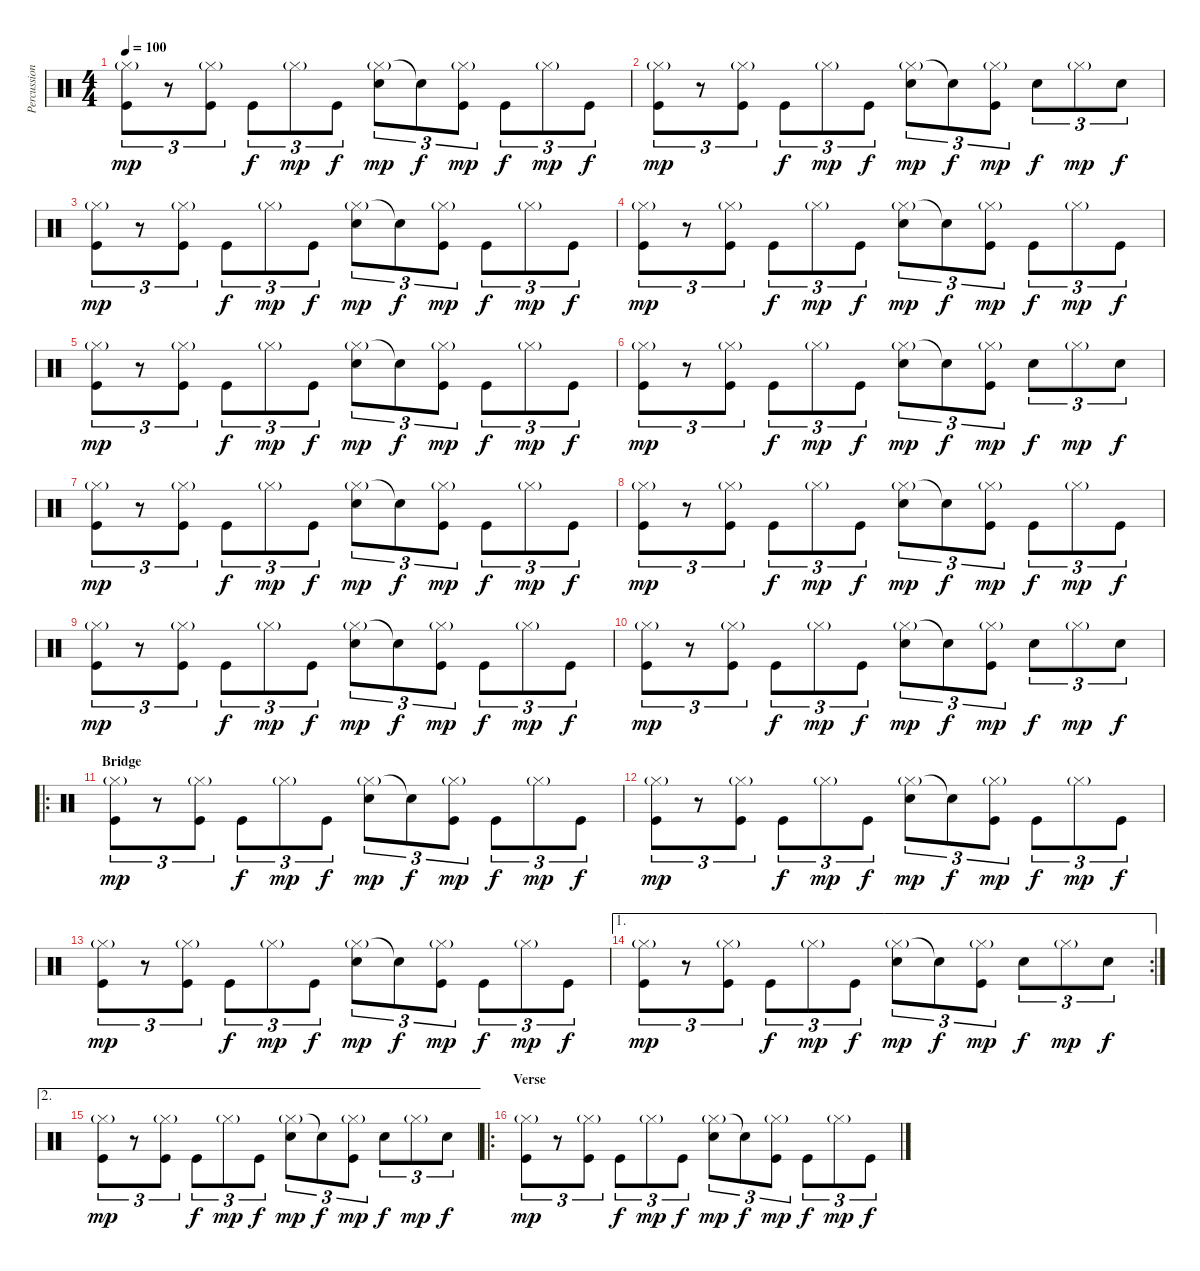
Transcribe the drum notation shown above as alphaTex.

\track ("Percussions" "Percussion") {instrument percussion}
\staff {score}
\articulation defaults
\ts (4 4)
\tempo 100
\clef neutral
\ks c
("Hi-Hat (closed)"{g} "Kick (hit)").8{tu (3 2) dy mp} r.8{tu (3 2)} ("Hi-Hat (closed)"{g} "Kick (hit)").8{tu (3 2)} "Kick (hit)".8{tu (3 2) dy f} "Hi-Hat (closed)"{g}.8{tu (3 2) dy mp} "Kick (hit)".8{tu (3 2) dy f} ("Hi-Hat (closed)"{g} "Electric Snare (hit)").8{tu (3 2) dy mp} "Snare (hit)"{t}.8{tu (3 2) dy f} ("Hi-Hat (closed)"{g} "Kick (hit)").8{tu (3 2) dy mp} "Kick (hit)".8{tu (3 2) dy f} "Hi-Hat (closed)"{g}.8{tu (3 2) dy mp} "Kick (hit)".8{tu (3 2) dy f} |
("Hi-Hat (closed)"{g} "Kick (hit)").8{tu (3 2) dy mp} r.8{tu (3 2)} ("Hi-Hat (closed)"{g} "Kick (hit)").8{tu (3 2)} "Kick (hit)".8{tu (3 2) dy f} "Hi-Hat (closed)"{g}.8{tu (3 2) dy mp} "Kick (hit)".8{tu (3 2) dy f} ("Hi-Hat (closed)"{g} "Electric Snare (hit)").8{tu (3 2) dy mp} "Snare (hit)"{t}.8{tu (3 2) dy f} ("Hi-Hat (closed)"{g} "Kick (hit)").8{tu (3 2) dy mp} "Electric Snare (hit)".8{tu (3 2) dy f} "Hi-Hat (closed)"{g}.8{tu (3 2) dy mp} "Electric Snare (hit)".8{tu (3 2) dy f} |
("Hi-Hat (closed)"{g} "Kick (hit)").8{tu (3 2) dy mp} r.8{tu (3 2)} ("Hi-Hat (closed)"{g} "Kick (hit)").8{tu (3 2)} "Kick (hit)".8{tu (3 2) dy f} "Hi-Hat (closed)"{g}.8{tu (3 2) dy mp} "Kick (hit)".8{tu (3 2) dy f} ("Hi-Hat (closed)"{g} "Electric Snare (hit)").8{tu (3 2) dy mp} "Snare (hit)"{t}.8{tu (3 2) dy f} ("Hi-Hat (closed)"{g} "Kick (hit)").8{tu (3 2) dy mp} "Kick (hit)".8{tu (3 2) dy f} "Hi-Hat (closed)"{g}.8{tu (3 2) dy mp} "Kick (hit)".8{tu (3 2) dy f} |
("Hi-Hat (closed)"{g} "Kick (hit)").8{tu (3 2) dy mp} r.8{tu (3 2)} ("Hi-Hat (closed)"{g} "Kick (hit)").8{tu (3 2)} "Kick (hit)".8{tu (3 2) dy f} "Hi-Hat (closed)"{g}.8{tu (3 2) dy mp} "Kick (hit)".8{tu (3 2) dy f} ("Hi-Hat (closed)"{g} "Electric Snare (hit)").8{tu (3 2) dy mp} "Snare (hit)"{t}.8{tu (3 2) dy f} ("Hi-Hat (closed)"{g} "Kick (hit)").8{tu (3 2) dy mp} "Kick (hit)".8{tu (3 2) dy f} "Hi-Hat (closed)"{g}.8{tu (3 2) dy mp} "Kick (hit)".8{tu (3 2) dy f} |
("Hi-Hat (closed)"{g} "Kick (hit)").8{tu (3 2) dy mp} r.8{tu (3 2)} ("Hi-Hat (closed)"{g} "Kick (hit)").8{tu (3 2)} "Kick (hit)".8{tu (3 2) dy f} "Hi-Hat (closed)"{g}.8{tu (3 2) dy mp} "Kick (hit)".8{tu (3 2) dy f} ("Hi-Hat (closed)"{g} "Electric Snare (hit)").8{tu (3 2) dy mp} "Snare (hit)"{t}.8{tu (3 2) dy f} ("Hi-Hat (closed)"{g} "Kick (hit)").8{tu (3 2) dy mp} "Kick (hit)".8{tu (3 2) dy f} "Hi-Hat (closed)"{g}.8{tu (3 2) dy mp} "Kick (hit)".8{tu (3 2) dy f} |
("Hi-Hat (closed)"{g} "Kick (hit)").8{tu (3 2) dy mp} r.8{tu (3 2)} ("Hi-Hat (closed)"{g} "Kick (hit)").8{tu (3 2)} "Kick (hit)".8{tu (3 2) dy f} "Hi-Hat (closed)"{g}.8{tu (3 2) dy mp} "Kick (hit)".8{tu (3 2) dy f} ("Hi-Hat (closed)"{g} "Electric Snare (hit)").8{tu (3 2) dy mp} "Snare (hit)"{t}.8{tu (3 2) dy f} ("Hi-Hat (closed)"{g} "Kick (hit)").8{tu (3 2) dy mp} "Electric Snare (hit)".8{tu (3 2) dy f} "Hi-Hat (closed)"{g}.8{tu (3 2) dy mp} "Electric Snare (hit)".8{tu (3 2) dy f} |
("Hi-Hat (closed)"{g} "Kick (hit)").8{tu (3 2) dy mp} r.8{tu (3 2)} ("Hi-Hat (closed)"{g} "Kick (hit)").8{tu (3 2)} "Kick (hit)".8{tu (3 2) dy f} "Hi-Hat (closed)"{g}.8{tu (3 2) dy mp} "Kick (hit)".8{tu (3 2) dy f} ("Hi-Hat (closed)"{g} "Electric Snare (hit)").8{tu (3 2) dy mp} "Snare (hit)"{t}.8{tu (3 2) dy f} ("Hi-Hat (closed)"{g} "Kick (hit)").8{tu (3 2) dy mp} "Kick (hit)".8{tu (3 2) dy f} "Hi-Hat (closed)"{g}.8{tu (3 2) dy mp} "Kick (hit)".8{tu (3 2) dy f} |
("Hi-Hat (closed)"{g} "Kick (hit)").8{tu (3 2) dy mp} r.8{tu (3 2)} ("Hi-Hat (closed)"{g} "Kick (hit)").8{tu (3 2)} "Kick (hit)".8{tu (3 2) dy f} "Hi-Hat (closed)"{g}.8{tu (3 2) dy mp} "Kick (hit)".8{tu (3 2) dy f} ("Hi-Hat (closed)"{g} "Electric Snare (hit)").8{tu (3 2) dy mp} "Snare (hit)"{t}.8{tu (3 2) dy f} ("Hi-Hat (closed)"{g} "Kick (hit)").8{tu (3 2) dy mp} "Kick (hit)".8{tu (3 2) dy f} "Hi-Hat (closed)"{g}.8{tu (3 2) dy mp} "Kick (hit)".8{tu (3 2) dy f} |
("Hi-Hat (closed)"{g} "Kick (hit)").8{tu (3 2) dy mp} r.8{tu (3 2)} ("Hi-Hat (closed)"{g} "Kick (hit)").8{tu (3 2)} "Kick (hit)".8{tu (3 2) dy f} "Hi-Hat (closed)"{g}.8{tu (3 2) dy mp} "Kick (hit)".8{tu (3 2) dy f} ("Hi-Hat (closed)"{g} "Electric Snare (hit)").8{tu (3 2) dy mp} "Snare (hit)"{t}.8{tu (3 2) dy f} ("Hi-Hat (closed)"{g} "Kick (hit)").8{tu (3 2) dy mp} "Kick (hit)".8{tu (3 2) dy f} "Hi-Hat (closed)"{g}.8{tu (3 2) dy mp} "Kick (hit)".8{tu (3 2) dy f} |
("Hi-Hat (closed)"{g} "Kick (hit)").8{tu (3 2) dy mp} r.8{tu (3 2)} ("Hi-Hat (closed)"{g} "Kick (hit)").8{tu (3 2)} "Kick (hit)".8{tu (3 2) dy f} "Hi-Hat (closed)"{g}.8{tu (3 2) dy mp} "Kick (hit)".8{tu (3 2) dy f} ("Hi-Hat (closed)"{g} "Electric Snare (hit)").8{tu (3 2) dy mp} "Snare (hit)"{t}.8{tu (3 2) dy f} ("Hi-Hat (closed)"{g} "Kick (hit)").8{tu (3 2) dy mp} "Electric Snare (hit)".8{tu (3 2) dy f} "Hi-Hat (closed)"{g}.8{tu (3 2) dy mp} "Electric Snare (hit)".8{tu (3 2) dy f} |
\ro
\section ("" "Bridge")
("Hi-Hat (closed)"{g} "Kick (hit)").8{tu (3 2) dy mp} r.8{tu (3 2)} ("Hi-Hat (closed)"{g} "Kick (hit)").8{tu (3 2)} "Kick (hit)".8{tu (3 2) dy f} "Hi-Hat (closed)"{g}.8{tu (3 2) dy mp} "Kick (hit)".8{tu (3 2) dy f} ("Hi-Hat (closed)"{g} "Electric Snare (hit)").8{tu (3 2) dy mp} "Snare (hit)"{t}.8{tu (3 2) dy f} ("Hi-Hat (closed)"{g} "Kick (hit)").8{tu (3 2) dy mp} "Kick (hit)".8{tu (3 2) dy f} "Hi-Hat (closed)"{g}.8{tu (3 2) dy mp} "Kick (hit)".8{tu (3 2) dy f} |
("Hi-Hat (closed)"{g} "Kick (hit)").8{tu (3 2) dy mp} r.8{tu (3 2)} ("Hi-Hat (closed)"{g} "Kick (hit)").8{tu (3 2)} "Kick (hit)".8{tu (3 2) dy f} "Hi-Hat (closed)"{g}.8{tu (3 2) dy mp} "Kick (hit)".8{tu (3 2) dy f} ("Hi-Hat (closed)"{g} "Electric Snare (hit)").8{tu (3 2) dy mp} "Snare (hit)"{t}.8{tu (3 2) dy f} ("Hi-Hat (closed)"{g} "Kick (hit)").8{tu (3 2) dy mp} "Kick (hit)".8{tu (3 2) dy f} "Hi-Hat (closed)"{g}.8{tu (3 2) dy mp} "Kick (hit)".8{tu (3 2) dy f} |
("Hi-Hat (closed)"{g} "Kick (hit)").8{tu (3 2) dy mp} r.8{tu (3 2)} ("Hi-Hat (closed)"{g} "Kick (hit)").8{tu (3 2)} "Kick (hit)".8{tu (3 2) dy f} "Hi-Hat (closed)"{g}.8{tu (3 2) dy mp} "Kick (hit)".8{tu (3 2) dy f} ("Hi-Hat (closed)"{g} "Electric Snare (hit)").8{tu (3 2) dy mp} "Snare (hit)"{t}.8{tu (3 2) dy f} ("Hi-Hat (closed)"{g} "Kick (hit)").8{tu (3 2) dy mp} "Kick (hit)".8{tu (3 2) dy f} "Hi-Hat (closed)"{g}.8{tu (3 2) dy mp} "Kick (hit)".8{tu (3 2) dy f} |
\ae 1
\rc 2
("Hi-Hat (closed)"{g} "Kick (hit)").8{tu (3 2) dy mp} r.8{tu (3 2)} ("Hi-Hat (closed)"{g} "Kick (hit)").8{tu (3 2)} "Kick (hit)".8{tu (3 2) dy f} "Hi-Hat (closed)"{g}.8{tu (3 2) dy mp} "Kick (hit)".8{tu (3 2) dy f} ("Hi-Hat (closed)"{g} "Electric Snare (hit)").8{tu (3 2) dy mp} "Snare (hit)"{t}.8{tu (3 2) dy f} ("Hi-Hat (closed)"{g} "Kick (hit)").8{tu (3 2) dy mp} "Electric Snare (hit)".8{tu (3 2) dy f} "Hi-Hat (closed)"{g}.8{tu (3 2) dy mp} "Electric Snare (hit)".8{tu (3 2) dy f} |
\ae 2
("Hi-Hat (closed)"{g} "Kick (hit)").8{tu (3 2) dy mp} r.8{tu (3 2)} ("Hi-Hat (closed)"{g} "Kick (hit)").8{tu (3 2)} "Kick (hit)".8{tu (3 2) dy f} "Hi-Hat (closed)"{g}.8{tu (3 2) dy mp} "Kick (hit)".8{tu (3 2) dy f} ("Hi-Hat (closed)"{g} "Electric Snare (hit)").8{tu (3 2) dy mp} "Snare (hit)"{t}.8{tu (3 2) dy f} ("Hi-Hat (closed)"{g} "Kick (hit)").8{tu (3 2) dy mp} "Electric Snare (hit)".8{tu (3 2) dy f} "Hi-Hat (closed)"{g}.8{tu (3 2) dy mp} "Electric Snare (hit)".8{tu (3 2) dy f} |
\ro
\section ("" "Verse")
("Hi-Hat (closed)"{g} "Kick (hit)").8{tu (3 2) dy mp} r.8{tu (3 2)} ("Hi-Hat (closed)"{g} "Kick (hit)").8{tu (3 2)} "Kick (hit)".8{tu (3 2) dy f} "Hi-Hat (closed)"{g}.8{tu (3 2) dy mp} "Kick (hit)".8{tu (3 2) dy f} ("Hi-Hat (closed)"{g} "Electric Snare (hit)").8{tu (3 2) dy mp} "Snare (hit)"{t}.8{tu (3 2) dy f} ("Hi-Hat (closed)"{g} "Kick (hit)").8{tu (3 2) dy mp} "Kick (hit)".8{tu (3 2) dy f} "Hi-Hat (closed)"{g}.8{tu (3 2) dy mp} "Kick (hit)".8{tu (3 2) dy f}
